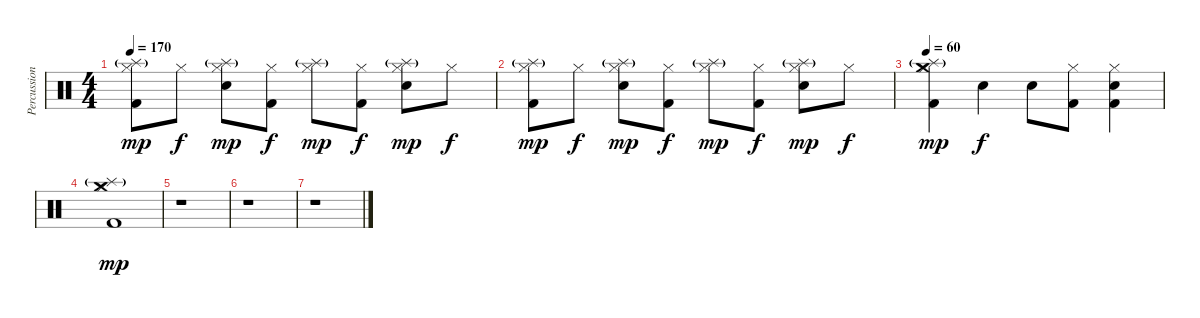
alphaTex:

\track ("Percussions" "Percussion") {instrument percussion}
\staff {score}
\articulation defaults
\ts (4 4)
\tempo 170
\clef neutral
\ks c
("Splash (hit)"{g} "Hi-Hat (closed)" "Kick (hit) 2").8{dy mp} "Hi-Hat (closed)".8{dy f} ("Splash (hit)"{g} "Hi-Hat (closed)" "Electric Snare (hit)").8{dy mp} ("Hi-Hat (closed)" "Kick (hit) 2").8{dy f} ("Splash (hit)"{g} "Hi-Hat (closed)").8{dy mp} ("Hi-Hat (closed)" "Kick (hit) 2").8{dy f} ("Splash (hit)"{g} "Hi-Hat (closed)" "Electric Snare (hit)").8{dy mp} "Hi-Hat (closed)".8{dy f} |
("Splash (hit)"{g} "Hi-Hat (closed)" "Kick (hit) 2").8{dy mp} "Hi-Hat (closed)".8{dy f} ("Splash (hit)"{g} "Hi-Hat (closed)" "Electric Snare (hit)").8{dy mp} ("Hi-Hat (closed)" "Kick (hit) 2").8{dy f} ("Splash (hit)"{g} "Hi-Hat (closed)").8{dy mp} ("Hi-Hat (closed)" "Kick (hit) 2").8{dy f} ("Splash (hit)"{g} "Hi-Hat (closed)" "Electric Snare (hit)").8{dy mp} "Hi-Hat (closed)".8{dy f} |
\tempo 60
("Crash medium (hit)" "Splash (hit)"{g} "Hi-Hat (closed)" "Kick (hit) 2").4{dy mp} "Electric Snare (hit)".4{dy f} "Electric Snare (hit)".8 ("Hi-Hat (closed)" "Kick (hit) 2").8 ("Hi-Hat (closed)" "Kick (hit) 2" "Electric Snare (hit)").4 |
("Crash medium (hit)" "Splash (hit)"{g} "Hi-Hat (closed)" "Kick (hit) 2").1{dy mp} |
r.1 |
r.1 |
r.1
